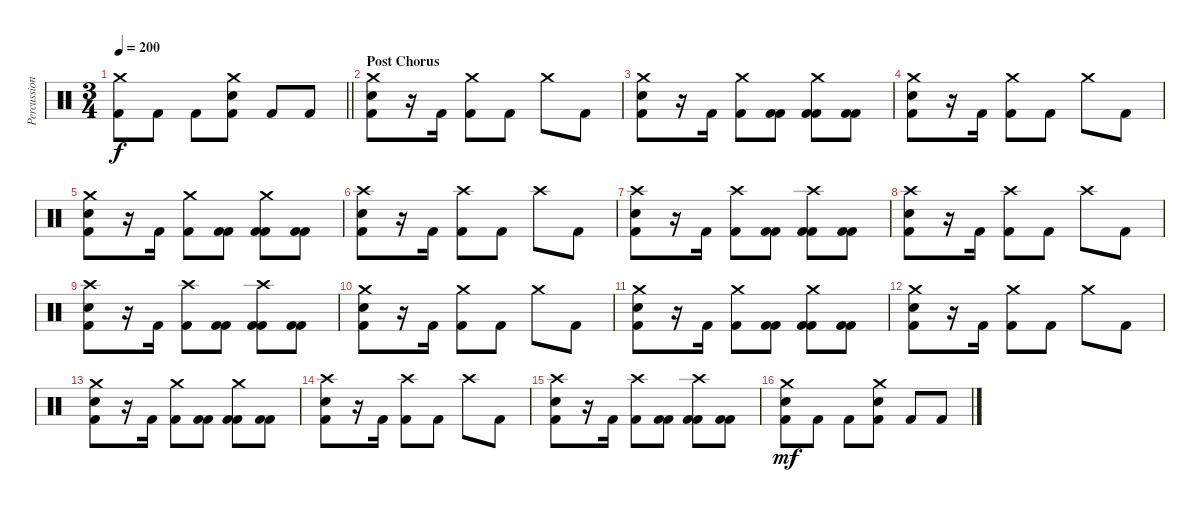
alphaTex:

\track ("Percussion" "Percussion") {instrument percussion}
\staff {score}
\articulation defaults
\ts (3 4)
\tempo 200
\clef neutral
\barLineRight lightlight
\ks c
("Crash medium (hit)" "Kick (hit) 2").8{dy f} "Kick (hit) 2".8 "Kick (hit) 2".8 ("Crash medium (hit)" "Electric Snare (hit)" "Kick (hit) 2").8 "Kick (hit) 2".8 "Kick (hit) 2".8 |
\section ("" "Post Chorus")
("Crash medium (hit)" "Electric Snare (hit)" "Kick (hit) 2").8 r.16 "Kick (hit) 2".16 ("Crash medium (hit)" "Kick (hit) 2").8 "Kick (hit) 2".8 "Crash medium (hit)".8 "Kick (hit) 2".8 |
("Crash medium (hit)" "Electric Snare (hit)" "Kick (hit) 2").8 r.16 "Kick (hit) 2".16 ("Crash medium (hit)" "Kick (hit) 2").8 ("Kick (hit) 2" "Kick (hit) 2").8 ("Crash medium (hit)" "Kick (hit) 2" "Kick (hit) 2").8 ("Kick (hit) 2" "Kick (hit) 2").8 |
("Crash medium (hit)" "Electric Snare (hit)" "Kick (hit) 2").8 r.16 "Kick (hit) 2".16 ("Crash medium (hit)" "Kick (hit) 2").8 "Kick (hit) 2".8 "Crash medium (hit)".8 "Kick (hit) 2".8 |
("Crash medium (hit)" "Electric Snare (hit)" "Kick (hit) 2").8 r.16 "Kick (hit) 2".16 ("Crash medium (hit)" "Kick (hit) 2").8 ("Kick (hit) 2" "Kick (hit) 2").8 ("Crash medium (hit)" "Kick (hit) 2" "Kick (hit) 2").8 ("Kick (hit) 2" "Kick (hit) 2").8 |
("Crash high (hit)" "Electric Snare (hit)" "Kick (hit) 2").8 r.16 "Kick (hit) 2".16 ("Crash high (hit)" "Kick (hit) 2").8 "Kick (hit) 2".8 "Crash high (hit)".8 "Kick (hit) 2".8 |
("Crash high (hit)" "Electric Snare (hit)" "Kick (hit) 2").8 r.16 "Kick (hit) 2".16 ("Crash high (hit)" "Kick (hit) 2").8 ("Kick (hit) 2" "Kick (hit) 2").8 ("Crash high (hit)" "Kick (hit) 2" "Kick (hit) 2").8 ("Kick (hit) 2" "Kick (hit) 2").8 |
("Crash high (hit)" "Electric Snare (hit)" "Kick (hit) 2").8 r.16 "Kick (hit) 2".16 ("Crash high (hit)" "Kick (hit) 2").8 "Kick (hit) 2".8 "Crash high (hit)".8 "Kick (hit) 2".8 |
("Crash high (hit)" "Electric Snare (hit)" "Kick (hit) 2").8 r.16 "Kick (hit) 2".16 ("Crash high (hit)" "Kick (hit) 2").8 ("Kick (hit) 2" "Kick (hit) 2").8 ("Crash high (hit)" "Kick (hit) 2" "Kick (hit) 2").8 ("Kick (hit) 2" "Kick (hit) 2").8 |
("Crash medium (hit)" "Electric Snare (hit)" "Kick (hit) 2").8 r.16 "Kick (hit) 2".16 ("Crash medium (hit)" "Kick (hit) 2").8 "Kick (hit) 2".8 "Crash medium (hit)".8 "Kick (hit) 2".8 |
("Crash medium (hit)" "Electric Snare (hit)" "Kick (hit) 2").8 r.16 "Kick (hit) 2".16 ("Crash medium (hit)" "Kick (hit) 2").8 ("Kick (hit) 2" "Kick (hit) 2").8 ("Crash medium (hit)" "Kick (hit) 2" "Kick (hit) 2").8 ("Kick (hit) 2" "Kick (hit) 2").8 |
("Crash medium (hit)" "Electric Snare (hit)" "Kick (hit) 2").8 r.16 "Kick (hit) 2".16 ("Crash medium (hit)" "Kick (hit) 2").8 "Kick (hit) 2".8 "Crash medium (hit)".8 "Kick (hit) 2".8 |
("Crash medium (hit)" "Electric Snare (hit)" "Kick (hit) 2").8 r.16 "Kick (hit) 2".16 ("Crash medium (hit)" "Kick (hit) 2").8 ("Kick (hit) 2" "Kick (hit) 2").8 ("Crash medium (hit)" "Kick (hit) 2" "Kick (hit) 2").8 ("Kick (hit) 2" "Kick (hit) 2").8 |
("Crash high (hit)" "Electric Snare (hit)" "Kick (hit) 2").8 r.16 "Kick (hit) 2".16 ("Crash high (hit)" "Kick (hit) 2").8 "Kick (hit) 2".8 "Crash high (hit)".8 "Kick (hit) 2".8 |
("Crash high (hit)" "Electric Snare (hit)" "Kick (hit) 2").8 r.16 "Kick (hit) 2".16 ("Crash high (hit)" "Kick (hit) 2").8 ("Kick (hit) 2" "Kick (hit) 2").8 ("Crash high (hit)" "Kick (hit) 2" "Kick (hit) 2").8 ("Kick (hit) 2" "Kick (hit) 2").8 |
("Crash medium (hit)" "Electric Snare (hit)" "Kick (hit) 2").8{dy mf} "Kick (hit) 2".8 "Kick (hit) 2".8 ("Crash medium (hit)" "Electric Snare (hit)" "Kick (hit) 2").8 "Kick (hit) 2".8 "Kick (hit) 2".8
